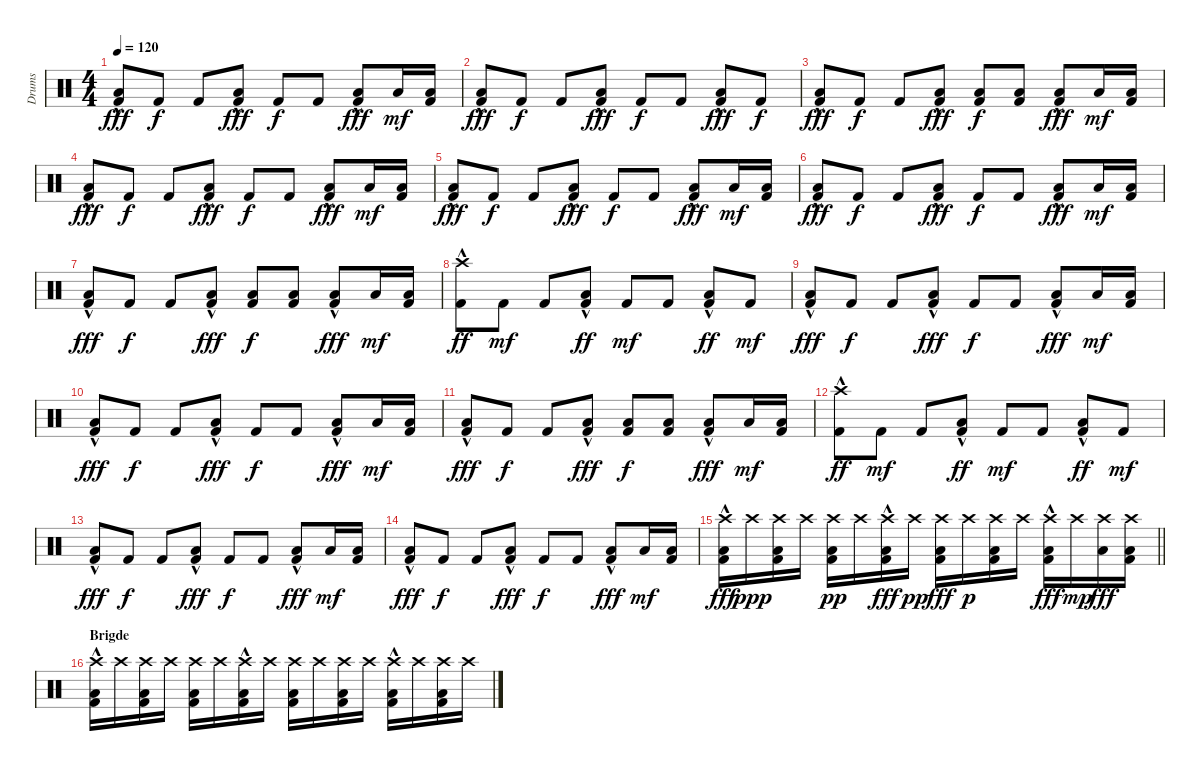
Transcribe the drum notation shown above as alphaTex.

\track ("Drums" "Drums") {instrument percussion}
\staff {score}
\articulation defaults
\ts (4 4)
\tempo 120
\clef neutral
\ks c
("Low Floor Tom (hit)" "Kick (hit) 2"{hac}).8{dy fff} "Kick (hit) 2".8{dy f} "Kick (hit) 2".8 ("Low Floor Tom (hit)" "Kick (hit) 2"{hac}).8{dy fff} "Kick (hit) 2".8{dy f} "Kick (hit) 2".8 ("Low Floor Tom (hit)" "Kick (hit) 2"{hac}).8{dy fff} "Low Floor Tom (hit)".16{dy mf} ("Low Floor Tom (hit)" "Kick (hit) 2").16 |
("Low Floor Tom (hit)" "Kick (hit) 2"{hac}).8{dy fff} "Kick (hit) 2".8{dy f} "Kick (hit) 2".8 ("Low Floor Tom (hit)" "Kick (hit) 2"{hac}).8{dy fff} "Kick (hit) 2".8{dy f} "Kick (hit) 2".8 ("Low Floor Tom (hit)" "Kick (hit) 2"{hac}).8{dy fff} "Kick (hit) 2".8{dy f} |
("Low Floor Tom (hit)" "Kick (hit) 2"{hac}).8{dy fff} "Kick (hit) 2".8{dy f} "Kick (hit) 2".8 ("Low Floor Tom (hit)" "Kick (hit) 2"{hac}).8{dy fff} ("Low Floor Tom (hit)" "Kick (hit) 2").8{dy f} ("Low Floor Tom (hit)" "Kick (hit) 2").8 ("Low Floor Tom (hit)" "Kick (hit) 2"{hac}).8{dy fff} "Low Floor Tom (hit)".16{dy mf} ("Low Floor Tom (hit)" "Kick (hit) 2").16 |
("Low Floor Tom (hit)" "Kick (hit) 2"{hac}).8{dy fff} "Kick (hit) 2".8{dy f} "Kick (hit) 2".8 ("Low Floor Tom (hit)" "Kick (hit) 2"{hac}).8{dy fff} "Kick (hit) 2".8{dy f} "Kick (hit) 2".8 ("Low Floor Tom (hit)" "Kick (hit) 2"{hac}).8{dy fff} "Low Floor Tom (hit)".16{dy mf} ("Low Floor Tom (hit)" "Kick (hit) 2").16 |
("Low Floor Tom (hit)" "Kick (hit) 2"{hac}).8{dy fff} "Kick (hit) 2".8{dy f} "Kick (hit) 2".8 ("Low Floor Tom (hit)" "Kick (hit) 2"{hac}).8{dy fff} "Kick (hit) 2".8{dy f} "Kick (hit) 2".8 ("Low Floor Tom (hit)" "Kick (hit) 2"{hac}).8{dy fff} "Low Floor Tom (hit)".16{dy mf} ("Low Floor Tom (hit)" "Kick (hit) 2").16 |
("Low Floor Tom (hit)" "Kick (hit) 2"{hac}).8{dy fff} "Kick (hit) 2".8{dy f} "Kick (hit) 2".8 ("Low Floor Tom (hit)" "Kick (hit) 2"{hac}).8{dy fff} "Kick (hit) 2".8{dy f} "Kick (hit) 2".8 ("Low Floor Tom (hit)" "Kick (hit) 2"{hac}).8{dy fff} "Low Floor Tom (hit)".16{dy mf} ("Low Floor Tom (hit)" "Kick (hit) 2").16 |
("Low Floor Tom (hit)" "Kick (hit) 2"{hac}).8{dy fff} "Kick (hit) 2".8{dy f} "Kick (hit) 2".8 ("Low Floor Tom (hit)" "Kick (hit) 2"{hac}).8{dy fff} ("Low Floor Tom (hit)" "Kick (hit) 2").8{dy f} ("Low Floor Tom (hit)" "Kick (hit) 2").8 ("Low Floor Tom (hit)" "Kick (hit) 2"{hac}).8{dy fff} "Low Floor Tom (hit)".16{dy mf} ("Low Floor Tom (hit)" "Kick (hit) 2").16 |
("Crash high (hit)"{hac} "Kick (hit) 2"{hac}).8{dy ff} "Kick (hit) 2".8{dy mf} "Kick (hit) 2".8 ("Low Floor Tom (hit)"{hac} "Kick (hit) 2"{hac}).8{dy ff} "Kick (hit) 2".8{dy mf} "Kick (hit) 2".8 ("Low Floor Tom (hit)"{hac} "Kick (hit) 2"{hac}).8{dy ff} "Kick (hit) 2".8{dy mf} |
("Low Floor Tom (hit)" "Kick (hit) 2"{hac}).8{dy fff} "Kick (hit) 2".8{dy f} "Kick (hit) 2".8 ("Low Floor Tom (hit)" "Kick (hit) 2"{hac}).8{dy fff} "Kick (hit) 2".8{dy f} "Kick (hit) 2".8 ("Low Floor Tom (hit)" "Kick (hit) 2"{hac}).8{dy fff} "Low Floor Tom (hit)".16{dy mf} ("Low Floor Tom (hit)" "Kick (hit) 2").16 |
("Low Floor Tom (hit)" "Kick (hit) 2"{hac}).8{dy fff} "Kick (hit) 2".8{dy f} "Kick (hit) 2".8 ("Low Floor Tom (hit)" "Kick (hit) 2"{hac}).8{dy fff} "Kick (hit) 2".8{dy f} "Kick (hit) 2".8 ("Low Floor Tom (hit)" "Kick (hit) 2"{hac}).8{dy fff} "Low Floor Tom (hit)".16{dy mf} ("Low Floor Tom (hit)" "Kick (hit) 2").16 |
("Low Floor Tom (hit)" "Kick (hit) 2"{hac}).8{dy fff} "Kick (hit) 2".8{dy f} "Kick (hit) 2".8 ("Low Floor Tom (hit)" "Kick (hit) 2"{hac}).8{dy fff} ("Low Floor Tom (hit)" "Kick (hit) 2").8{dy f} ("Low Floor Tom (hit)" "Kick (hit) 2").8 ("Low Floor Tom (hit)" "Kick (hit) 2"{hac}).8{dy fff} "Low Floor Tom (hit)".16{dy mf} ("Low Floor Tom (hit)" "Kick (hit) 2").16 |
("Crash high (hit)"{hac} "Kick (hit) 2"{hac}).8{dy ff} "Kick (hit) 2".8{dy mf} "Kick (hit) 2".8 ("Low Floor Tom (hit)"{hac} "Kick (hit) 2"{hac}).8{dy ff} "Kick (hit) 2".8{dy mf} "Kick (hit) 2".8 ("Low Floor Tom (hit)"{hac} "Kick (hit) 2"{hac}).8{dy ff} "Kick (hit) 2".8{dy mf} |
("Low Floor Tom (hit)" "Kick (hit) 2"{hac}).8{dy fff} "Kick (hit) 2".8{dy f} "Kick (hit) 2".8 ("Low Floor Tom (hit)" "Kick (hit) 2"{hac}).8{dy fff} "Kick (hit) 2".8{dy f} "Kick (hit) 2".8 ("Low Floor Tom (hit)" "Kick (hit) 2"{hac}).8{dy fff} "Low Floor Tom (hit)".16{dy mf} ("Low Floor Tom (hit)" "Kick (hit) 2").16 |
("Low Floor Tom (hit)" "Kick (hit) 2"{hac}).8{dy fff} "Kick (hit) 2".8{dy f} "Kick (hit) 2".8 ("Low Floor Tom (hit)" "Kick (hit) 2"{hac}).8{dy fff} "Kick (hit) 2".8{dy f} "Kick (hit) 2".8 ("Low Floor Tom (hit)" "Kick (hit) 2"{hac}).8{dy fff} "Low Floor Tom (hit)".16{dy mf} ("Low Floor Tom (hit)" "Kick (hit) 2").16 |
\barLineRight lightlight
("Crash high (hit)" "Low Floor Tom (hit)"{hac} "Kick (hit) 2"{hac}).16{dy fff} "Crash high (hit)".16{dy ppp} ("Crash high (hit)" "Low Floor Tom (hit)" "Kick (hit) 2").16 "Crash high (hit)".16 ("Crash high (hit)" "Low Floor Tom (hit)" "Kick (hit) 2").16{dy pp} "Crash high (hit)".16 ("Crash high (hit)" "Low Floor Tom (hit)"{hac} "Kick (hit) 2"{hac}).16{dy fff} "Crash high (hit)".16{dy pp} ("Crash high (hit)" "Low Floor Tom (hit)" "Kick (hit) 2").16{dy fff} "Crash high (hit)".16{dy p} ("Crash high (hit)" "Low Floor Tom (hit)" "Kick (hit) 2").16 "Crash high (hit)".16 ("Crash high (hit)" "Low Floor Tom (hit)"{hac} "Kick (hit) 2"{hac}).16{dy fff} "Crash high (hit)".16{dy mp} ("Crash high (hit)" "Low Floor Tom (hit)").16{dy fff} ("Crash high (hit)" "Low Floor Tom (hit)" "Kick (hit) 2").16 |
\section ("" "Brigde")
("Crash high (hit)" "Low Floor Tom (hit)"{hac} "Kick (hit) 2"{hac}).16 "Crash high (hit)".16 ("Crash high (hit)" "Low Floor Tom (hit)" "Kick (hit) 2").16 "Crash high (hit)".16 ("Crash high (hit)" "Low Floor Tom (hit)" "Kick (hit) 2").16 "Crash high (hit)".16 ("Crash high (hit)" "Low Floor Tom (hit)"{hac} "Kick (hit) 2"{hac}).16 "Crash high (hit)".16 ("Crash high (hit)" "Low Floor Tom (hit)" "Kick (hit) 2").16 "Crash high (hit)".16 ("Crash high (hit)" "Low Floor Tom (hit)" "Kick (hit) 2").16 "Crash high (hit)".16 ("Crash high (hit)" "Low Floor Tom (hit)"{hac} "Kick (hit) 2"{hac}).16 "Crash high (hit)".16 ("Crash high (hit)" "Low Floor Tom (hit)" "Kick (hit) 2").16 "Crash high (hit)".16
